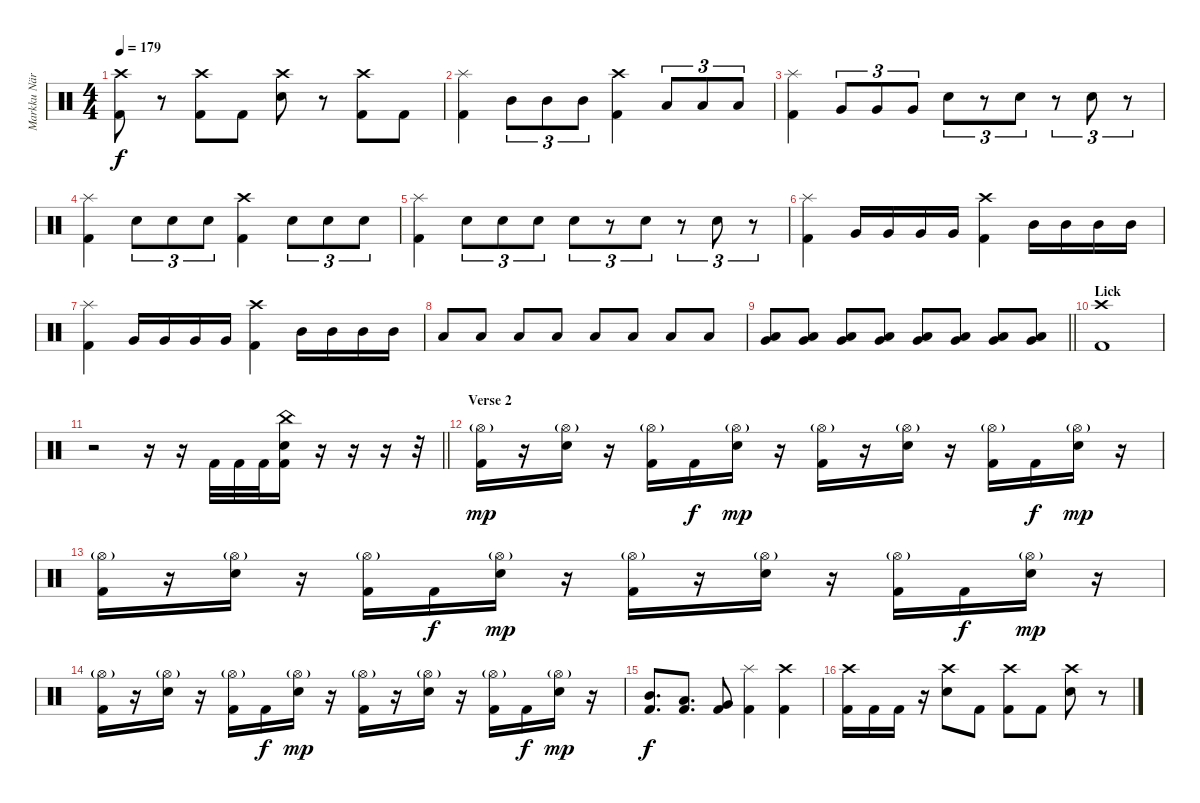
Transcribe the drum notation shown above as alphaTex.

\track ("Markku Näreneva (Drums)" "Markku När") {instrument percussion}
\staff {score}
\articulation defaults
\ts (4 4)
\tempo 179
\clef neutral
\ks c
("Kick (hit) 2" "Crash high (hit)").8{dy f} r.8 ("Kick (hit) 2" "Crash high (hit)").8 "Kick (hit) 2".8 ("Snare (hit) 2" "Crash high (hit)").8 r.8 ("Kick (hit) 2" "Crash high (hit)").8 "Kick (hit) 2".8 |
("Kick (hit) 2" "Splash (hit)").4 "Mid Tom (hit)".8{tu (3 2)} "Mid Tom (hit)".8{tu (3 2)} "Mid Tom (hit)".8{tu (3 2)} ("Kick (hit) 2" "Crash high (hit)").4 "Low Tom (hit)".8{tu (3 2)} "Low Tom (hit)".8{tu (3 2)} "Low Tom (hit)".8{tu (3 2)} |
("Kick (hit) 2" "Splash (hit)").4 "Very Low Tom (hit)".8{tu (3 2)} "Very Low Tom (hit)".8{tu (3 2)} "Very Low Tom (hit)".8{tu (3 2)} "Snare (hit) 2".8{tu (3 2)} r.8{tu (3 2)} "Snare (hit) 2".8{tu (3 2)} r.8{tu (3 2)} "Snare (hit) 2".8{tu (3 2)} r.8{tu (3 2)} |
("Kick (hit) 2" "Splash (hit)").4 "Snare (hit) 2".8{tu (3 2)} "Snare (hit) 2".8{tu (3 2)} "Snare (hit) 2".8{tu (3 2)} ("Kick (hit) 2" "Crash high (hit)").4 "Snare (hit) 2".8{tu (3 2)} "Snare (hit) 2".8{tu (3 2)} "Snare (hit) 2".8{tu (3 2)} |
("Kick (hit) 2" "Splash (hit)").4 "Snare (hit) 2".8{tu (3 2)} "Snare (hit) 2".8{tu (3 2)} "Snare (hit) 2".8{tu (3 2)} "Snare (hit) 2".8{tu (3 2)} r.8{tu (3 2)} "Snare (hit) 2".8{tu (3 2)} r.8{tu (3 2)} "Snare (hit) 2".8{tu (3 2)} r.8{tu (3 2)} |
("Kick (hit) 2" "Splash (hit)").4 "Very Low Tom (hit)".16 "Very Low Tom (hit)".16 "Very Low Tom (hit)".16 "Very Low Tom (hit)".16 ("Kick (hit) 2" "Crash high (hit)").4 "Mid Tom (hit)".16 "Mid Tom (hit)".16 "Mid Tom (hit)".16 "Mid Tom (hit)".16 |
("Kick (hit) 2" "Splash (hit)").4 "Very Low Tom (hit)".16 "Very Low Tom (hit)".16 "Very Low Tom (hit)".16 "Very Low Tom (hit)".16 ("Kick (hit) 2" "Crash high (hit)").4 "Mid Tom (hit)".16 "Mid Tom (hit)".16 "Mid Tom (hit)".16 "Mid Tom (hit)".16 |
"Low Tom (hit)".8 "Low Tom (hit)".8 "Low Tom (hit)".8 "Low Tom (hit)".8 "Low Tom (hit)".8 "Low Tom (hit)".8 "Low Tom (hit)".8 "Low Tom (hit)".8 |
\barLineRight lightlight
("Low Tom (hit)" "Very Low Tom (hit)").8 ("Low Tom (hit)" "Very Low Tom (hit)").8 ("Low Tom (hit)" "Very Low Tom (hit)").8 ("Low Tom (hit)" "Very Low Tom (hit)").8 ("Low Tom (hit)" "Very Low Tom (hit)").8 ("Low Tom (hit)" "Very Low Tom (hit)").8 ("Low Tom (hit)" "Very Low Tom (hit)").8 ("Low Tom (hit)" "Very Low Tom (hit)").8 |
\section ("" "Lick")
("Kick (hit) 2" "Crash high (hit)").1 |
\barLineRight lightlight
r.2 r.16 r.16 "Kick (hit) 2".32 "Kick (hit) 2".32 "Kick (hit) 2".32 ("Kick (hit) 2" "Snare (hit) 2" "China (hit)").16 r.16 r.16 r.16 r.32 |
\section ("" "Verse 2")
("Kick (hit) 2" "Hi-Hat (open)"{g}).16{dy mp} r.16 ("Snare (hit) 2" "Hi-Hat (open)"{g}).16 r.16 ("Kick (hit) 2" "Hi-Hat (open)"{g}).16 "Kick (hit) 2".16{dy f} ("Snare (hit) 2" "Hi-Hat (open)"{g}).16{dy mp} r.16 ("Kick (hit) 2" "Hi-Hat (open)"{g}).16 r.16 ("Snare (hit) 2" "Hi-Hat (open)"{g}).16 r.16 ("Kick (hit) 2" "Hi-Hat (open)"{g}).16 "Kick (hit) 2".16{dy f} ("Snare (hit) 2" "Hi-Hat (open)"{g}).16{dy mp} r.16 |
("Kick (hit) 2" "Hi-Hat (open)"{g}).16 r.16 ("Snare (hit) 2" "Hi-Hat (open)"{g}).16 r.16 ("Kick (hit) 2" "Hi-Hat (open)"{g}).16 "Kick (hit) 2".16{dy f} ("Snare (hit) 2" "Hi-Hat (open)"{g}).16{dy mp} r.16 ("Kick (hit) 2" "Hi-Hat (open)"{g}).16 r.16 ("Snare (hit) 2" "Hi-Hat (open)"{g}).16 r.16 ("Kick (hit) 2" "Hi-Hat (open)"{g}).16 "Kick (hit) 2".16{dy f} ("Snare (hit) 2" "Hi-Hat (open)"{g}).16{dy mp} r.16 |
("Kick (hit) 2" "Hi-Hat (open)"{g}).16 r.16 ("Snare (hit) 2" "Hi-Hat (open)"{g}).16 r.16 ("Kick (hit) 2" "Hi-Hat (open)"{g}).16 "Kick (hit) 2".16{dy f} ("Snare (hit) 2" "Hi-Hat (open)"{g}).16{dy mp} r.16 ("Kick (hit) 2" "Hi-Hat (open)"{g}).16 r.16 ("Snare (hit) 2" "Hi-Hat (open)"{g}).16 r.16 ("Kick (hit) 2" "Hi-Hat (open)"{g}).16 "Kick (hit) 2".16{dy f} ("Snare (hit) 2" "Hi-Hat (open)"{g}).16{dy mp} r.16 |
("Kick (hit) 2" "Mid Tom (hit)").8{d dy f} ("Kick (hit) 2" "Low Tom (hit)").8{d} ("Kick (hit) 2" "Very Low Tom (hit)").8 ("Kick (hit) 2" "Splash (hit)").4 ("Kick (hit) 2" "Crash high (hit)").4 |
("Kick (hit) 2" "Crash high (hit)").16 "Kick (hit) 2".16 "Kick (hit) 2".16 r.16 ("Snare (hit) 2" "Crash high (hit)").8 "Kick (hit) 2".8 ("Kick (hit) 2" "Crash high (hit)").8 "Kick (hit) 2".8 ("Snare (hit) 2" "Crash high (hit)").8 r.8
